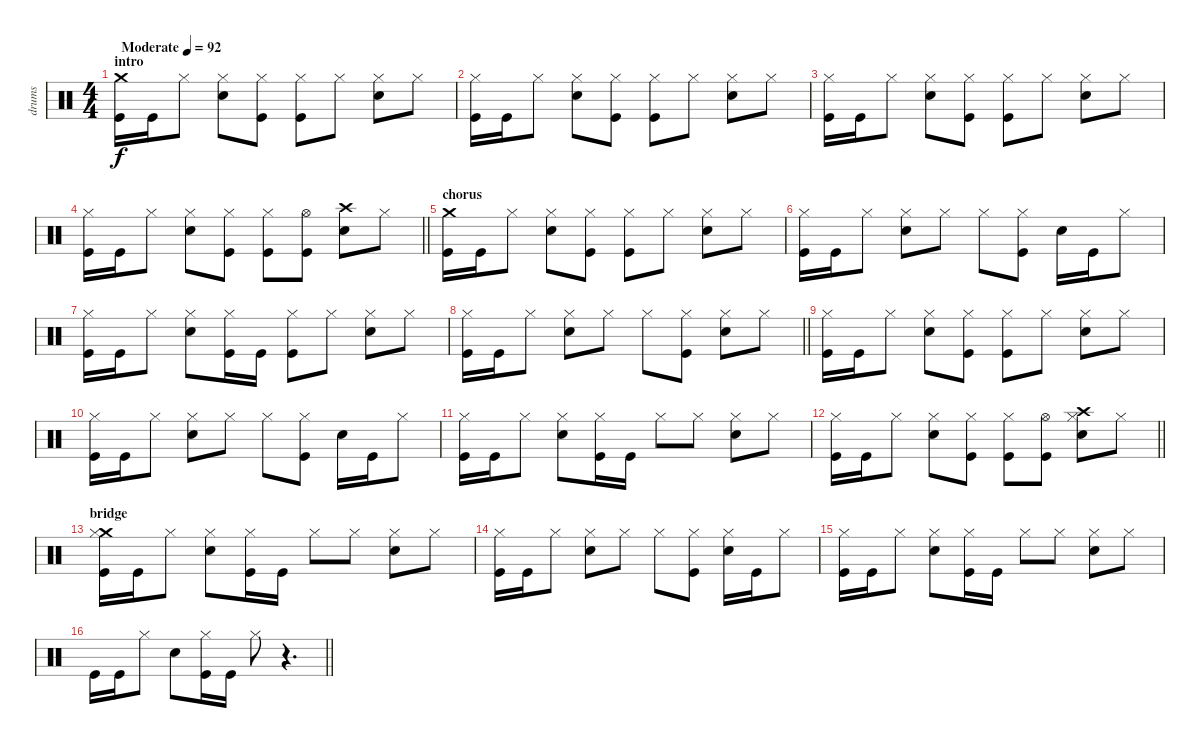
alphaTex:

\track ("drums" "drums") {instrument percussion}
\staff {score}
\articulation defaults
\ts (4 4)
\section ("" "intro")
\tempo (92 "Moderate")
\clef neutral
\ks c
("Crash medium (hit)" "Kick (hit)").16{dy f} "Kick (hit)".16 "Hi-Hat (closed)".8 ("Hi-Hat (closed)" "Snare (hit) 2").8 ("Hi-Hat (closed)" "Kick (hit)").8 ("Hi-Hat (closed)" "Kick (hit)").8 "Hi-Hat (closed)".8 ("Hi-Hat (closed)" "Snare (hit) 2").8 "Hi-Hat (closed)".8 |
("Hi-Hat (closed)" "Kick (hit)").16 "Kick (hit)".16 "Hi-Hat (closed)".8 ("Hi-Hat (closed)" "Snare (hit) 2").8 ("Hi-Hat (closed)" "Kick (hit)").8 ("Hi-Hat (closed)" "Kick (hit)").8 "Hi-Hat (closed)".8 ("Hi-Hat (closed)" "Snare (hit) 2").8 "Hi-Hat (closed)".8 |
("Hi-Hat (closed)" "Kick (hit)").16 "Kick (hit)".16 "Hi-Hat (closed)".8 ("Hi-Hat (closed)" "Snare (hit) 2").8 ("Hi-Hat (closed)" "Kick (hit)").8 ("Hi-Hat (closed)" "Kick (hit)").8 "Hi-Hat (closed)".8 ("Hi-Hat (closed)" "Snare (hit) 2").8 "Hi-Hat (closed)".8 |
\barLineRight lightlight
("Hi-Hat (closed)" "Kick (hit)").16 "Kick (hit)".16 "Hi-Hat (closed)".8 ("Hi-Hat (closed)" "Snare (hit) 2").8 ("Hi-Hat (closed)" "Kick (hit)").8 ("Hi-Hat (closed)" "Kick (hit)").8 ("Hi-Hat (open)" "Kick (hit)").8 ("Crash high (hit)" "Snare (hit) 2").8 "Hi-Hat (closed)".8 |
\section ("" "chorus")
("Crash medium (hit)" "Kick (hit)").16 "Kick (hit)".16 "Hi-Hat (closed)".8 ("Hi-Hat (closed)" "Snare (hit) 2").8 ("Hi-Hat (closed)" "Kick (hit)").8 ("Hi-Hat (closed)" "Kick (hit)").8 "Hi-Hat (closed)".8 ("Hi-Hat (closed)" "Snare (hit) 2").8 "Hi-Hat (closed)".8 |
("Hi-Hat (closed)" "Kick (hit)").16 "Kick (hit)".16 "Hi-Hat (closed)".8 ("Hi-Hat (closed)" "Snare (hit) 2").8 "Hi-Hat (closed)".8 "Hi-Hat (closed)".8 ("Hi-Hat (closed)" "Kick (hit)").8 "Snare (hit) 2".16 "Kick (hit)".16 "Hi-Hat (closed)".8 |
("Hi-Hat (closed)" "Kick (hit)").16 "Kick (hit)".16 "Hi-Hat (closed)".8 ("Hi-Hat (closed)" "Snare (hit) 2").8 ("Hi-Hat (closed)" "Kick (hit)").16 "Kick (hit)".16 ("Hi-Hat (closed)" "Kick (hit)").8 "Hi-Hat (closed)".8 ("Hi-Hat (closed)" "Snare (hit) 2").8 "Hi-Hat (closed)".8 |
\barLineRight lightlight
("Hi-Hat (closed)" "Kick (hit)").16 "Kick (hit)".16 "Hi-Hat (closed)".8 ("Hi-Hat (closed)" "Snare (hit) 2").8 "Hi-Hat (closed)".8 "Hi-Hat (closed)".8 ("Hi-Hat (closed)" "Kick (hit)").8 ("Hi-Hat (closed)" "Snare (hit) 2").8 "Hi-Hat (closed)".8 |
("Hi-Hat (closed)" "Kick (hit)").16 "Kick (hit)".16 "Hi-Hat (closed)".8 ("Hi-Hat (closed)" "Snare (hit) 2").8 ("Hi-Hat (closed)" "Kick (hit)").8 ("Hi-Hat (closed)" "Kick (hit)").8 "Hi-Hat (closed)".8 ("Hi-Hat (closed)" "Snare (hit) 2").8 "Hi-Hat (closed)".8 |
("Hi-Hat (closed)" "Kick (hit)").16 "Kick (hit)".16 "Hi-Hat (closed)".8 ("Hi-Hat (closed)" "Snare (hit) 2").8 "Hi-Hat (closed)".8 "Hi-Hat (closed)".8 ("Hi-Hat (closed)" "Kick (hit)").8 "Snare (hit) 2".16 "Kick (hit)".16 "Hi-Hat (closed)".8 |
("Hi-Hat (closed)" "Kick (hit)").16 "Kick (hit)".16 "Hi-Hat (closed)".8 ("Hi-Hat (closed)" "Snare (hit) 2").8 ("Hi-Hat (closed)" "Kick (hit)").16 "Kick (hit)".16 "Hi-Hat (closed)".8 "Hi-Hat (closed)".8 ("Hi-Hat (closed)" "Snare (hit) 2").8 "Hi-Hat (closed)".8 |
\barLineRight lightlight
("Hi-Hat (closed)" "Kick (hit)").16 "Kick (hit)".16 "Hi-Hat (closed)".8 ("Hi-Hat (closed)" "Snare (hit) 2").8 ("Hi-Hat (closed)" "Kick (hit)").8 ("Hi-Hat (closed)" "Kick (hit)").8 ("Hi-Hat (open)" "Kick (hit)").8 ("Crash high (hit)" "Hi-Hat (closed)" "Snare (hit) 2").8 "Hi-Hat (closed)".8 |
\section ("" "bridge")
("Crash medium (hit)" "Hi-Hat (closed)" "Kick (hit)").16 "Kick (hit)".16 "Hi-Hat (closed)".8 ("Hi-Hat (closed)" "Snare (hit) 2").8 ("Hi-Hat (closed)" "Kick (hit)").16 "Kick (hit)".16 "Hi-Hat (closed)".8 "Hi-Hat (closed)".8 ("Hi-Hat (closed)" "Snare (hit) 2").8 "Hi-Hat (closed)".8 |
("Hi-Hat (closed)" "Kick (hit)").16 "Kick (hit)".16 "Hi-Hat (closed)".8 ("Hi-Hat (closed)" "Snare (hit) 2").8 "Hi-Hat (closed)".8 "Hi-Hat (closed)".8 ("Hi-Hat (closed)" "Kick (hit)").8 ("Hi-Hat (closed)" "Snare (hit) 2").16 "Kick (hit)".16 "Hi-Hat (closed)".8 |
("Hi-Hat (closed)" "Kick (hit)").16 "Kick (hit)".16 "Hi-Hat (closed)".8 ("Hi-Hat (closed)" "Snare (hit) 2").8 ("Hi-Hat (closed)" "Kick (hit)").16 "Kick (hit)".16 "Hi-Hat (closed)".8 "Hi-Hat (closed)".8 ("Hi-Hat (closed)" "Snare (hit) 2").8 "Hi-Hat (closed)".8 |
\barLineRight lightlight "Kick (hit)".16 "Kick (hit)".16 "Hi-Hat (closed)".8 "Snare (hit) 2".8
("Hi-Hat (closed)" "Kick (hit)").16 "Kick (hit)".16 "Hi-Hat (closed)".8 r.4{d}
